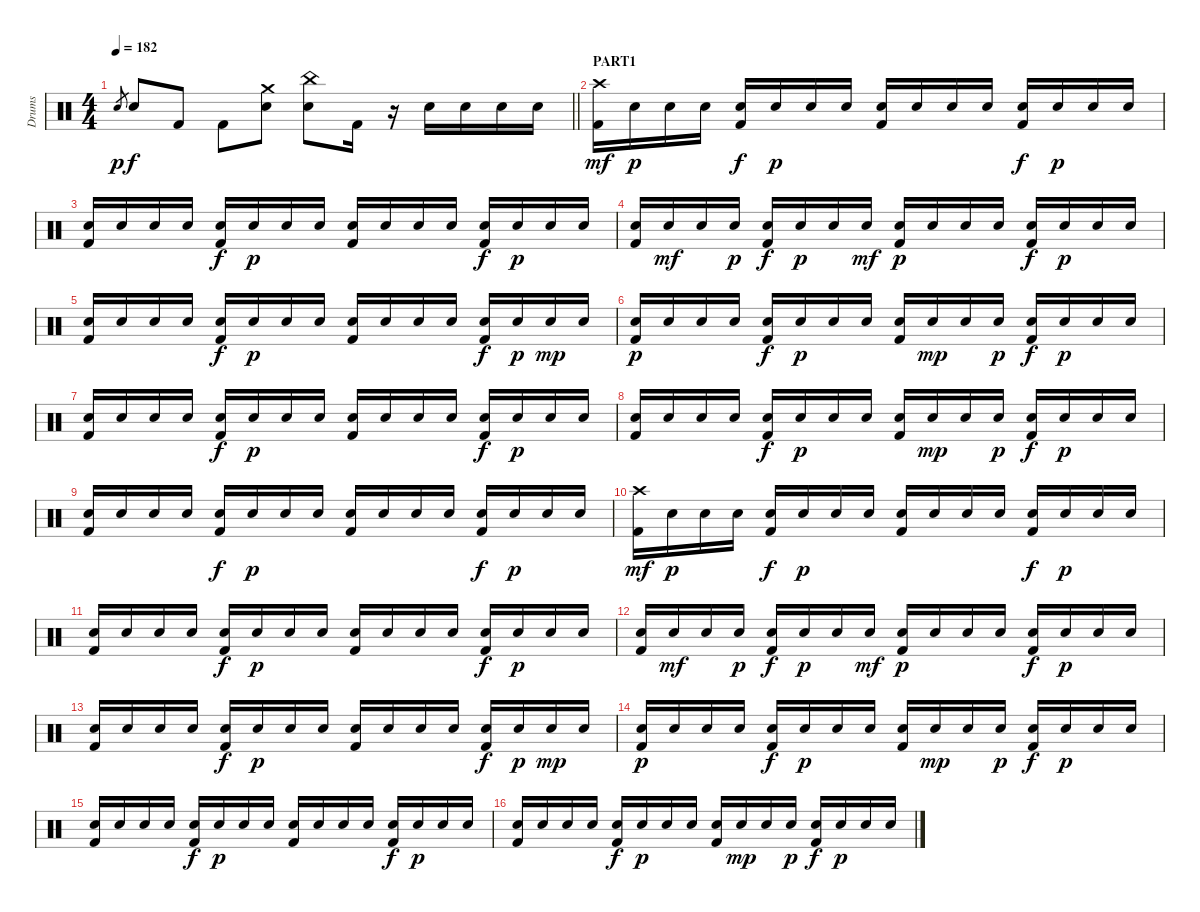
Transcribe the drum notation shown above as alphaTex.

\track ("Drums" "Drums") {instrument percussion}
\staff {score}
\articulation defaults
\ts (4 4)
\tempo 182
\clef neutral
\barLineRight lightlight
\ks c "Electric Snare (hit)".8{gr dy p} "Electric Snare (hit)".8{dy f} "Kick (hit) 2".8 "Kick (hit) 2".8
("Electric Snare (hit)" "Crash medium (hit)").8 ("Electric Snare (hit)" "China (hit)").8 "Kick (hit) 2".16 r.16 "Electric Snare (hit)".16 "Electric Snare (hit)".16 "Electric Snare (hit)".16 "Electric Snare (hit)".16 |
\section ("" "PART1")
("Kick (hit) 2" "Crash high (hit)").16{dy mf} "Electric Snare (hit)".16{dy p} "Electric Snare (hit)".16 "Electric Snare (hit)".16 ("Kick (hit) 2" "Electric Snare (hit)").16{dy f} "Electric Snare (hit)".16{dy p} "Electric Snare (hit)".16 "Electric Snare (hit)".16 ("Kick (hit) 2" "Electric Snare (hit)").16 "Electric Snare (hit)".16 "Electric Snare (hit)".16 "Electric Snare (hit)".16 ("Kick (hit) 2" "Electric Snare (hit)").16{dy f} "Electric Snare (hit)".16{dy p} "Electric Snare (hit)".16 "Electric Snare (hit)".16 |
("Kick (hit) 2" "Electric Snare (hit)").16 "Electric Snare (hit)".16 "Electric Snare (hit)".16 "Electric Snare (hit)".16 ("Kick (hit) 2" "Electric Snare (hit)").16{dy f} "Electric Snare (hit)".16{dy p} "Electric Snare (hit)".16 "Electric Snare (hit)".16 ("Kick (hit) 2" "Electric Snare (hit)").16 "Electric Snare (hit)".16 "Electric Snare (hit)".16 "Electric Snare (hit)".16 ("Kick (hit) 2" "Electric Snare (hit)").16{dy f} "Electric Snare (hit)".16{dy p} "Electric Snare (hit)".16 "Electric Snare (hit)".16 |
("Kick (hit) 2" "Electric Snare (hit)").16 "Electric Snare (hit)".16{dy mf} "Electric Snare (hit)".16 "Electric Snare (hit)".16{dy p} ("Kick (hit) 2" "Electric Snare (hit)").16{dy f} "Electric Snare (hit)".16{dy p} "Electric Snare (hit)".16 "Electric Snare (hit)".16{dy mf} ("Kick (hit) 2" "Electric Snare (hit)").16{dy p} "Electric Snare (hit)".16 "Electric Snare (hit)".16 "Electric Snare (hit)".16 ("Kick (hit) 2" "Electric Snare (hit)").16{dy f} "Electric Snare (hit)".16{dy p} "Electric Snare (hit)".16 "Electric Snare (hit)".16 |
("Kick (hit) 2" "Electric Snare (hit)").16 "Electric Snare (hit)".16 "Electric Snare (hit)".16 "Electric Snare (hit)".16 ("Kick (hit) 2" "Electric Snare (hit)").16{dy f} "Electric Snare (hit)".16{dy p} "Electric Snare (hit)".16 "Electric Snare (hit)".16 ("Kick (hit) 2" "Electric Snare (hit)").16 "Electric Snare (hit)".16 "Electric Snare (hit)".16 "Electric Snare (hit)".16 ("Kick (hit) 2" "Electric Snare (hit)").16{dy f} "Electric Snare (hit)".16{dy p} "Electric Snare (hit)".16{dy mp} "Electric Snare (hit)".16 |
("Kick (hit) 2" "Electric Snare (hit)").16{dy p} "Electric Snare (hit)".16 "Electric Snare (hit)".16 "Electric Snare (hit)".16 ("Kick (hit) 2" "Electric Snare (hit)").16{dy f} "Electric Snare (hit)".16{dy p} "Electric Snare (hit)".16 "Electric Snare (hit)".16 ("Kick (hit) 2" "Electric Snare (hit)").16 "Electric Snare (hit)".16{dy mp} "Electric Snare (hit)".16 "Electric Snare (hit)".16{dy p} ("Kick (hit) 2" "Electric Snare (hit)").16{dy f} "Electric Snare (hit)".16{dy p} "Electric Snare (hit)".16 "Electric Snare (hit)".16 |
("Kick (hit) 2" "Electric Snare (hit)").16 "Electric Snare (hit)".16 "Electric Snare (hit)".16 "Electric Snare (hit)".16 ("Kick (hit) 2" "Electric Snare (hit)").16{dy f} "Electric Snare (hit)".16{dy p} "Electric Snare (hit)".16 "Electric Snare (hit)".16 ("Kick (hit) 2" "Electric Snare (hit)").16 "Electric Snare (hit)".16 "Electric Snare (hit)".16 "Electric Snare (hit)".16 ("Kick (hit) 2" "Electric Snare (hit)").16{dy f} "Electric Snare (hit)".16{dy p} "Electric Snare (hit)".16 "Electric Snare (hit)".16 |
("Kick (hit) 2" "Electric Snare (hit)").16 "Electric Snare (hit)".16 "Electric Snare (hit)".16 "Electric Snare (hit)".16 ("Kick (hit) 2" "Electric Snare (hit)").16{dy f} "Electric Snare (hit)".16{dy p} "Electric Snare (hit)".16 "Electric Snare (hit)".16 ("Kick (hit) 2" "Electric Snare (hit)").16 "Electric Snare (hit)".16{dy mp} "Electric Snare (hit)".16 "Electric Snare (hit)".16{dy p} ("Kick (hit) 2" "Electric Snare (hit)").16{dy f} "Electric Snare (hit)".16{dy p} "Electric Snare (hit)".16 "Electric Snare (hit)".16 |
("Kick (hit) 2" "Electric Snare (hit)").16 "Electric Snare (hit)".16 "Electric Snare (hit)".16 "Electric Snare (hit)".16 ("Kick (hit) 2" "Electric Snare (hit)").16{dy f} "Electric Snare (hit)".16{dy p} "Electric Snare (hit)".16 "Electric Snare (hit)".16 ("Kick (hit) 2" "Electric Snare (hit)").16 "Electric Snare (hit)".16 "Electric Snare (hit)".16 "Electric Snare (hit)".16 ("Kick (hit) 2" "Electric Snare (hit)").16{dy f} "Electric Snare (hit)".16{dy p} "Electric Snare (hit)".16 "Electric Snare (hit)".16 |
("Kick (hit) 2" "Crash high (hit)").16{dy mf} "Electric Snare (hit)".16{dy p} "Electric Snare (hit)".16 "Electric Snare (hit)".16 ("Kick (hit) 2" "Electric Snare (hit)").16{dy f} "Electric Snare (hit)".16{dy p} "Electric Snare (hit)".16 "Electric Snare (hit)".16 ("Kick (hit) 2" "Electric Snare (hit)").16 "Electric Snare (hit)".16 "Electric Snare (hit)".16 "Electric Snare (hit)".16 ("Kick (hit) 2" "Electric Snare (hit)").16{dy f} "Electric Snare (hit)".16{dy p} "Electric Snare (hit)".16 "Electric Snare (hit)".16 |
("Kick (hit) 2" "Electric Snare (hit)").16 "Electric Snare (hit)".16 "Electric Snare (hit)".16 "Electric Snare (hit)".16 ("Kick (hit) 2" "Electric Snare (hit)").16{dy f} "Electric Snare (hit)".16{dy p} "Electric Snare (hit)".16 "Electric Snare (hit)".16 ("Kick (hit) 2" "Electric Snare (hit)").16 "Electric Snare (hit)".16 "Electric Snare (hit)".16 "Electric Snare (hit)".16 ("Kick (hit) 2" "Electric Snare (hit)").16{dy f} "Electric Snare (hit)".16{dy p} "Electric Snare (hit)".16 "Electric Snare (hit)".16 |
("Kick (hit) 2" "Electric Snare (hit)").16 "Electric Snare (hit)".16{dy mf} "Electric Snare (hit)".16 "Electric Snare (hit)".16{dy p} ("Kick (hit) 2" "Electric Snare (hit)").16{dy f} "Electric Snare (hit)".16{dy p} "Electric Snare (hit)".16 "Electric Snare (hit)".16{dy mf} ("Kick (hit) 2" "Electric Snare (hit)").16{dy p} "Electric Snare (hit)".16 "Electric Snare (hit)".16 "Electric Snare (hit)".16 ("Kick (hit) 2" "Electric Snare (hit)").16{dy f} "Electric Snare (hit)".16{dy p} "Electric Snare (hit)".16 "Electric Snare (hit)".16 |
("Kick (hit) 2" "Electric Snare (hit)").16 "Electric Snare (hit)".16 "Electric Snare (hit)".16 "Electric Snare (hit)".16 ("Kick (hit) 2" "Electric Snare (hit)").16{dy f} "Electric Snare (hit)".16{dy p} "Electric Snare (hit)".16 "Electric Snare (hit)".16 ("Kick (hit) 2" "Electric Snare (hit)").16 "Electric Snare (hit)".16 "Electric Snare (hit)".16 "Electric Snare (hit)".16 ("Kick (hit) 2" "Electric Snare (hit)").16{dy f} "Electric Snare (hit)".16{dy p} "Electric Snare (hit)".16{dy mp} "Electric Snare (hit)".16 |
("Kick (hit) 2" "Electric Snare (hit)").16{dy p} "Electric Snare (hit)".16 "Electric Snare (hit)".16 "Electric Snare (hit)".16 ("Kick (hit) 2" "Electric Snare (hit)").16{dy f} "Electric Snare (hit)".16{dy p} "Electric Snare (hit)".16 "Electric Snare (hit)".16 ("Kick (hit) 2" "Electric Snare (hit)").16 "Electric Snare (hit)".16{dy mp} "Electric Snare (hit)".16 "Electric Snare (hit)".16{dy p} ("Kick (hit) 2" "Electric Snare (hit)").16{dy f} "Electric Snare (hit)".16{dy p} "Electric Snare (hit)".16 "Electric Snare (hit)".16 |
("Kick (hit) 2" "Electric Snare (hit)").16 "Electric Snare (hit)".16 "Electric Snare (hit)".16 "Electric Snare (hit)".16 ("Kick (hit) 2" "Electric Snare (hit)").16{dy f} "Electric Snare (hit)".16{dy p} "Electric Snare (hit)".16 "Electric Snare (hit)".16 ("Kick (hit) 2" "Electric Snare (hit)").16 "Electric Snare (hit)".16 "Electric Snare (hit)".16 "Electric Snare (hit)".16 ("Kick (hit) 2" "Electric Snare (hit)").16{dy f} "Electric Snare (hit)".16{dy p} "Electric Snare (hit)".16 "Electric Snare (hit)".16 |
("Kick (hit) 2" "Electric Snare (hit)").16 "Electric Snare (hit)".16 "Electric Snare (hit)".16 "Electric Snare (hit)".16 ("Kick (hit) 2" "Electric Snare (hit)").16{dy f} "Electric Snare (hit)".16{dy p} "Electric Snare (hit)".16 "Electric Snare (hit)".16 ("Kick (hit) 2" "Electric Snare (hit)").16 "Electric Snare (hit)".16{dy mp} "Electric Snare (hit)".16 "Electric Snare (hit)".16{dy p} ("Kick (hit) 2" "Electric Snare (hit)").16{dy f} "Electric Snare (hit)".16{dy p} "Electric Snare (hit)".16 "Electric Snare (hit)".16
